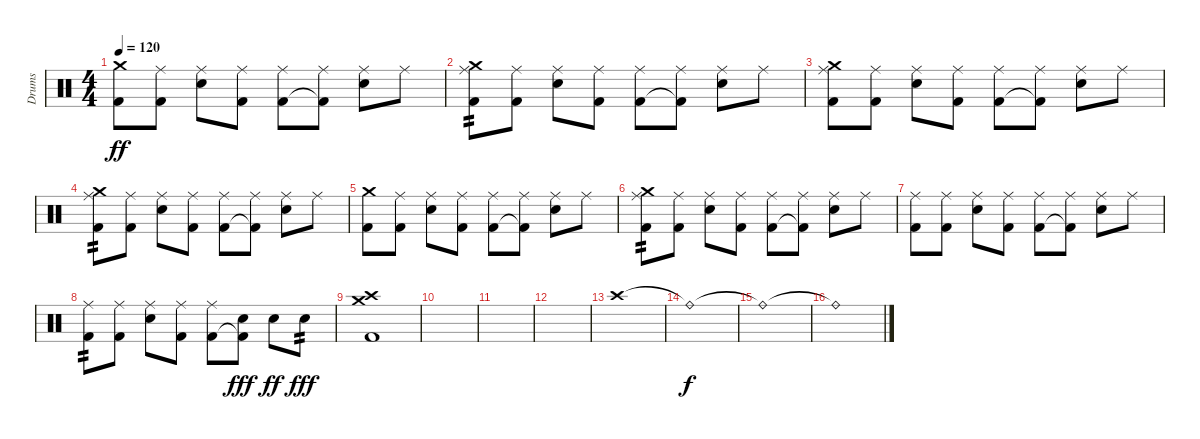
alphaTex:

\track ("Drums" "Drums") {instrument percussion}
\staff {score}
\articulation defaults
\ts (4 4)
\tempo 120
\clef neutral
\ks c
("Crash medium (hit)" "Kick (hit) 2").8{dy ff} ("Ride (middle)" "Kick (hit) 2").8 ("Ride (middle)" "Snare (hit) 2").8 ("Ride (middle)" "Kick (hit) 2").8 ("Ride (middle)" "Kick (hit) 2").8 ("Ride (middle)" "Kick (hit) 2"{t}).8 ("Ride (middle)" "Snare (hit) 2").8 "Ride (middle)".8 |
("Crash medium (hit)" "Ride (middle)" "Kick (hit) 2").8{tp 2} ("Ride (middle)" "Kick (hit) 2").8 ("Ride (middle)" "Snare (hit) 2").8 ("Ride (middle)" "Kick (hit) 2").8 ("Ride (middle)" "Kick (hit) 2").8 ("Ride (middle)" "Kick (hit) 2"{t}).8 ("Ride (middle)" "Snare (hit) 2").8 "Ride (middle)".8 |
("Crash medium (hit)" "Ride (middle)" "Kick (hit) 2").8 ("Ride (middle)" "Kick (hit) 2").8 ("Ride (middle)" "Snare (hit) 2").8 ("Ride (middle)" "Kick (hit) 2").8 ("Ride (middle)" "Kick (hit) 2").8 ("Ride (middle)" "Kick (hit) 2"{t}).8 ("Ride (middle)" "Snare (hit) 2").8 "Ride (middle)".8 |
("Crash medium (hit)" "Ride (middle)" "Kick (hit) 2").8{tp 2} ("Ride (middle)" "Kick (hit) 2").8 ("Ride (middle)" "Snare (hit) 2").8 ("Ride (middle)" "Kick (hit) 2").8 ("Ride (middle)" "Kick (hit) 2").8 ("Ride (middle)" "Kick (hit) 2"{t}).8 ("Ride (middle)" "Snare (hit) 2").8 "Ride (middle)".8 |
("Crash medium (hit)" "Kick (hit) 2").8 ("Ride (middle)" "Kick (hit) 2").8 ("Ride (middle)" "Snare (hit) 2").8 ("Ride (middle)" "Kick (hit) 2").8 ("Ride (middle)" "Kick (hit) 2").8 ("Ride (middle)" "Kick (hit) 2"{t}).8 ("Ride (middle)" "Snare (hit) 2").8 "Ride (middle)".8 |
("Crash medium (hit)" "Ride (middle)" "Kick (hit) 2").8{tp 2} ("Ride (middle)" "Kick (hit) 2").8 ("Ride (middle)" "Snare (hit) 2").8 ("Ride (middle)" "Kick (hit) 2").8 ("Ride (middle)" "Kick (hit) 2").8 ("Ride (middle)" "Kick (hit) 2"{t}).8 ("Ride (middle)" "Snare (hit) 2").8 "Ride (middle)".8 |
("Ride (middle)" "Kick (hit) 2").8 ("Ride (middle)" "Kick (hit) 2").8 ("Ride (middle)" "Snare (hit) 2").8 ("Ride (middle)" "Kick (hit) 2").8 ("Ride (middle)" "Kick (hit) 2").8 ("Ride (middle)" "Kick (hit) 2"{t}).8 ("Ride (middle)" "Snare (hit) 2").8 "Ride (middle)".8 |
("Ride (middle)" "Kick (hit) 2").8{tp 2} ("Ride (middle)" "Kick (hit) 2").8 ("Ride (middle)" "Snare (hit) 2").8 ("Ride (middle)" "Kick (hit) 2").8 ("Ride (middle)" "Kick (hit) 2").8 ("Snare (hit) 2" "Kick (hit) 2"{t}).8{dy fff} "Snare (hit) 2".8{dy ff} "Snare (hit) 2".8{tp 2 dy fff} |
("Crash medium (hit)" "Crash high (hit)" "Kick (hit) 2").1 |
|
|
|
"Crash high (hit)".1 |
"Ride (bell)"{t}.1{dy f} |
"Ride (bell)"{t}.1 |
"Ride (bell)"{t}.1
